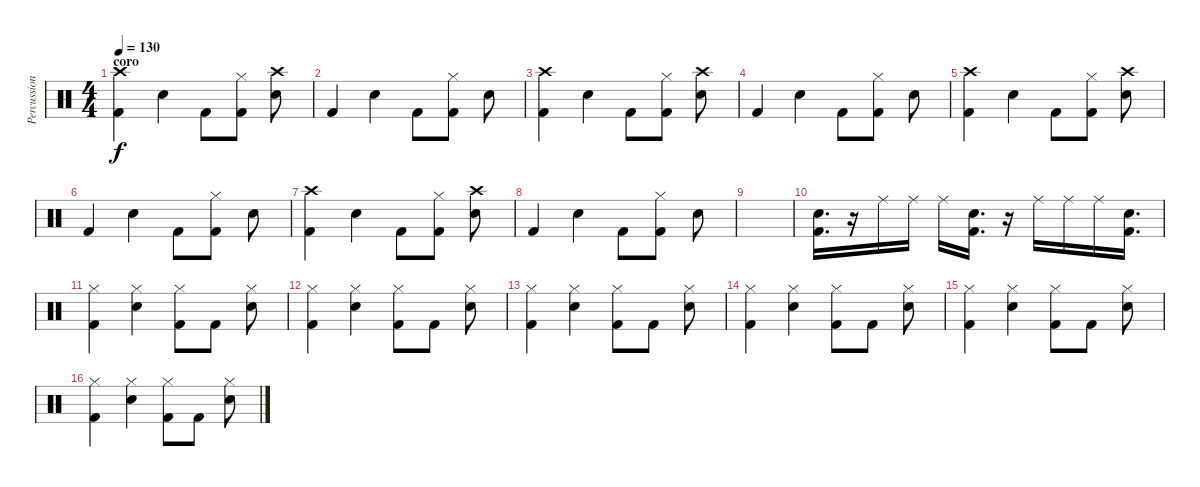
\track ("Percussion" "Percussion") {instrument percussion}
\staff {score}
\articulation defaults
\ts (4 4)
\section ("" "coro")
\tempo 130
\clef neutral
\ks c
("Kick (hit) 2" "Crash high (hit)").4{dy f} "Snare (hit) 2".4 "Kick (hit) 2".8 ("Kick (hit) 2" "Hi-Hat (closed)").8 ("Snare (hit) 2" "Crash high (hit)").8 |
"Kick (hit) 2".4 "Snare (hit) 2".4 "Kick (hit) 2".8 ("Kick (hit) 2" "Hi-Hat (closed)").8 "Snare (hit) 2".8 |
("Kick (hit) 2" "Crash high (hit)").4 "Snare (hit) 2".4 "Kick (hit) 2".8 ("Kick (hit) 2" "Hi-Hat (closed)").8 ("Snare (hit) 2" "Crash high (hit)").8 |
"Kick (hit) 2".4 "Snare (hit) 2".4 "Kick (hit) 2".8 ("Kick (hit) 2" "Hi-Hat (closed)").8 "Snare (hit) 2".8 |
("Kick (hit) 2" "Crash high (hit)").4 "Snare (hit) 2".4 "Kick (hit) 2".8 ("Kick (hit) 2" "Hi-Hat (closed)").8 ("Snare (hit) 2" "Crash high (hit)").8 |
"Kick (hit) 2".4 "Snare (hit) 2".4 "Kick (hit) 2".8 ("Kick (hit) 2" "Hi-Hat (closed)").8 "Snare (hit) 2".8 |
("Kick (hit) 2" "Crash high (hit)").4 "Snare (hit) 2".4 "Kick (hit) 2".8 ("Kick (hit) 2" "Hi-Hat (closed)").8 ("Snare (hit) 2" "Crash high (hit)").8 |
"Kick (hit) 2".4 "Snare (hit) 2".4 "Kick (hit) 2".8 ("Kick (hit) 2" "Hi-Hat (closed)").8 "Snare (hit) 2".8 |
|
("Snare (hit) 2" "Kick (hit) 2").16{d} r.16 "Ride (middle)".16 "Ride (middle)".16 "Ride (middle)".16 ("Snare (hit) 2" "Kick (hit) 2").16{d} r.16 "Ride (middle)".16 "Ride (middle)".16 "Ride (middle)".16 ("Snare (hit) 2" "Kick (hit) 2").16{d} |
("Kick (hit) 2" "Hi-Hat (closed)").4 ("Electric Snare (hit)" "Hi-Hat (closed)").4 ("Kick (hit) 2" "Hi-Hat (closed)").8 "Kick (hit) 2".8 ("Electric Snare (hit)" "Hi-Hat (closed)").8 |
("Kick (hit) 2" "Hi-Hat (closed)").4 ("Electric Snare (hit)" "Hi-Hat (closed)").4 ("Kick (hit) 2" "Hi-Hat (closed)").8 "Kick (hit) 2".8 ("Electric Snare (hit)" "Hi-Hat (closed)").8 |
("Kick (hit) 2" "Hi-Hat (closed)").4 ("Electric Snare (hit)" "Hi-Hat (closed)").4 ("Kick (hit) 2" "Hi-Hat (closed)").8 "Kick (hit) 2".8 ("Electric Snare (hit)" "Hi-Hat (closed)").8 |
("Kick (hit) 2" "Hi-Hat (closed)").4 ("Electric Snare (hit)" "Hi-Hat (closed)").4 ("Kick (hit) 2" "Hi-Hat (closed)").8 "Kick (hit) 2".8 ("Electric Snare (hit)" "Hi-Hat (closed)").8 |
("Kick (hit) 2" "Hi-Hat (closed)").4 ("Electric Snare (hit)" "Hi-Hat (closed)").4 ("Kick (hit) 2" "Hi-Hat (closed)").8 "Kick (hit) 2".8 ("Electric Snare (hit)" "Hi-Hat (closed)").8 |
("Kick (hit) 2" "Hi-Hat (closed)").4 ("Electric Snare (hit)" "Hi-Hat (closed)").4 ("Kick (hit) 2" "Hi-Hat (closed)").8 "Kick (hit) 2".8 ("Electric Snare (hit)" "Hi-Hat (closed)").8
